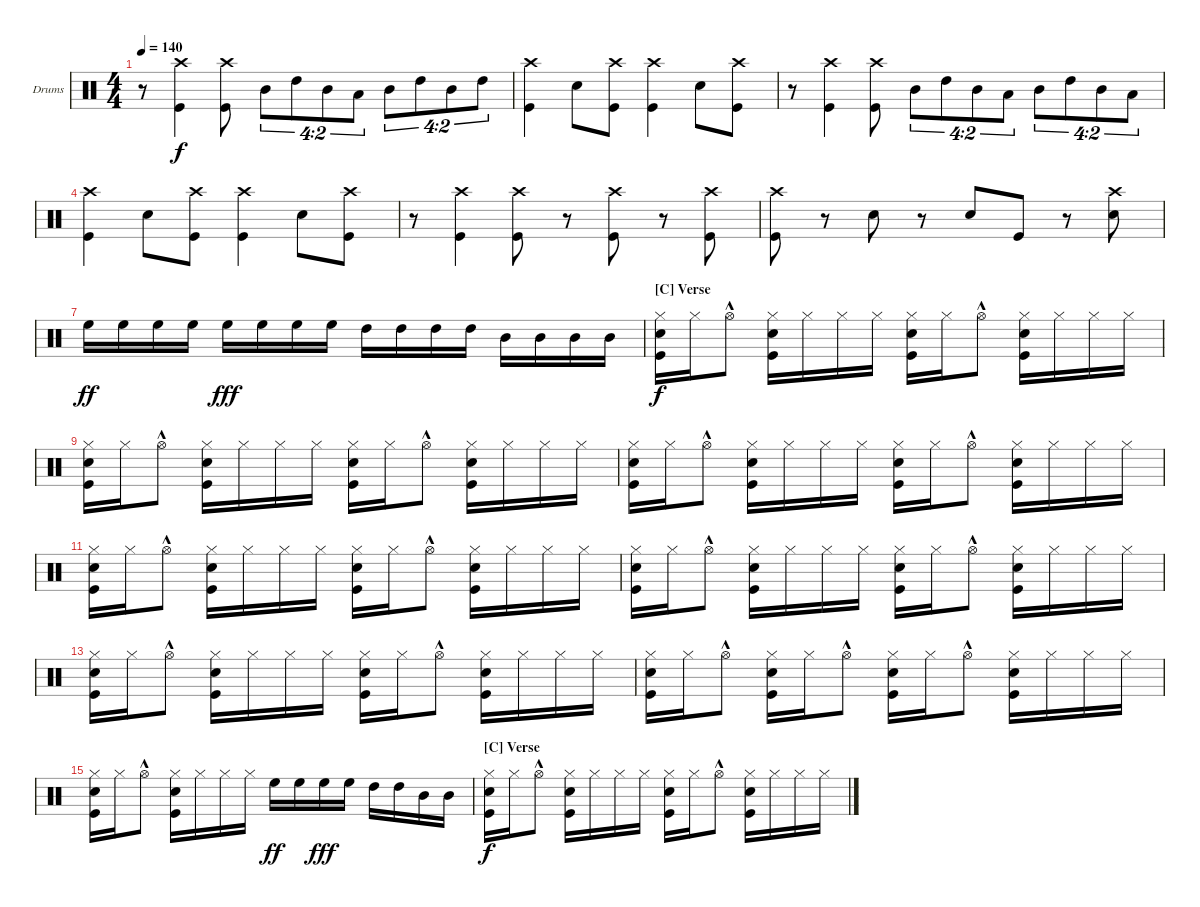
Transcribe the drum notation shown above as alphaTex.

\bracketExtendMode nobrackets
\firstSystemTrackNameOrientation horizontal
\otherSystemsTrackNameOrientation horizontal
\defaultBarNumberDisplay FirstOfSystem
\track ("Drumkit" "Drums") {instrument percussion}
\staff {score}
\articulation defaults
\ts (4 4)
\tempo 140
\clef neutral
\ks c
r.8{dy f} ("Crash high (hit)" "Kick (hit)").4 ("Crash high (hit)" "Kick (hit)").8 "Mid Tom (hit)".8{tu (4 2)} "High Tom (hit)".8{tu (4 2)} "Mid Tom (hit)".8{tu (4 2)} "Low Tom (hit)".8{tu (4 2)} "Mid Tom (hit)".8{tu (4 2)} "High Tom (hit)".8{tu (4 2)} "Mid Tom (hit)".8{tu (4 2)} "High Tom (hit)".8{tu (4 2)} |
("Kick (hit)" "Crash high (hit)").4 "Snare (hit) 2".8 ("Crash high (hit)" "Kick (hit)").8 ("Crash high (hit)" "Kick (hit)").4 "Snare (hit) 2".8 ("Crash high (hit)" "Kick (hit)").8 |
r.8 ("Crash high (hit)" "Kick (hit)").4 ("Crash high (hit)" "Kick (hit)").8 "Mid Tom (hit)".8{tu (4 2)} "High Tom (hit)".8{tu (4 2)} "Mid Tom (hit)".8{tu (4 2)} "Low Tom (hit)".8{tu (4 2)} "Mid Tom (hit)".8{tu (4 2)} "High Tom (hit)".8{tu (4 2)} "Mid Tom (hit)".8{tu (4 2)} "Low Tom (hit)".8{tu (4 2)} |
("Kick (hit)" "Crash high (hit)").4 "Snare (hit) 2".8 ("Crash high (hit)" "Kick (hit)").8 ("Crash high (hit)" "Kick (hit)").4 "Snare (hit) 2".8 ("Crash high (hit)" "Kick (hit)").8 |
r.8 ("Crash high (hit)" "Kick (hit)").4 ("Crash high (hit)" "Kick (hit)").8 r.8 ("Kick (hit)" "Crash high (hit)").8 r.8 ("Kick (hit)" "Crash high (hit)").8 |
("Kick (hit)" "Crash high (hit)").8 r.8 "Snare (hit) 2".8 r.8 "Snare (hit) 2".8 "Kick (hit)".8 r.8 ("Crash high (hit)" "Snare (hit) 2").8 |
"High Floor Tom (hit)".16{dy ff} "High Floor Tom (hit)".16 "High Floor Tom (hit)".16 "High Floor Tom (hit)".16 "High Floor Tom (hit)".16{dy fff} "High Floor Tom (hit)".16 "High Floor Tom (hit)".16 "High Floor Tom (hit)".16 "High Tom (hit)".16 "High Tom (hit)".16 "High Tom (hit)".16 "High Tom (hit)".16 "Mid Tom (hit)".16 "Mid Tom (hit)".16 "Mid Tom (hit)".16 "Mid Tom (hit)".16 |
\section ("C" "Verse")
("Hi-Hat (closed)" "Kick (hit)" "Snare (hit) 2").16{dy f} "Hi-Hat (closed)".16 "Hi-Hat (open)"{hac}.8 ("Hi-Hat (closed)" "Kick (hit)" "Snare (hit) 2").16 "Hi-Hat (closed)".16 "Hi-Hat (closed)".16 "Hi-Hat (closed)".16 ("Hi-Hat (closed)" "Kick (hit)" "Snare (hit) 2").16 "Hi-Hat (closed)".16 "Hi-Hat (open)"{hac}.8 ("Hi-Hat (closed)" "Kick (hit)" "Snare (hit) 2").16 "Hi-Hat (closed)".16 "Hi-Hat (closed)".16 "Hi-Hat (closed)".16 |
("Hi-Hat (closed)" "Kick (hit)" "Snare (hit) 2").16 "Hi-Hat (closed)".16 "Hi-Hat (open)"{hac}.8 ("Hi-Hat (closed)" "Kick (hit)" "Snare (hit) 2").16 "Hi-Hat (closed)".16 "Hi-Hat (closed)".16 "Hi-Hat (closed)".16 ("Hi-Hat (closed)" "Kick (hit)" "Snare (hit) 2").16 "Hi-Hat (closed)".16 "Hi-Hat (open)"{hac}.8 ("Hi-Hat (closed)" "Kick (hit)" "Snare (hit) 2").16 "Hi-Hat (closed)".16 "Hi-Hat (closed)".16 "Hi-Hat (closed)".16 |
("Hi-Hat (closed)" "Kick (hit)" "Snare (hit) 2").16 "Hi-Hat (closed)".16 "Hi-Hat (open)"{hac}.8 ("Hi-Hat (closed)" "Kick (hit)" "Snare (hit) 2").16 "Hi-Hat (closed)".16 "Hi-Hat (closed)".16 "Hi-Hat (closed)".16 ("Hi-Hat (closed)" "Kick (hit)" "Snare (hit) 2").16 "Hi-Hat (closed)".16 "Hi-Hat (open)"{hac}.8 ("Hi-Hat (closed)" "Kick (hit)" "Snare (hit) 2").16 "Hi-Hat (closed)".16 "Hi-Hat (closed)".16 "Hi-Hat (closed)".16 |
("Hi-Hat (closed)" "Kick (hit)" "Snare (hit) 2").16 "Hi-Hat (closed)".16 "Hi-Hat (open)"{hac}.8 ("Hi-Hat (closed)" "Kick (hit)" "Snare (hit) 2").16 "Hi-Hat (closed)".16 "Hi-Hat (closed)".16 "Hi-Hat (closed)".16 ("Hi-Hat (closed)" "Kick (hit)" "Snare (hit) 2").16 "Hi-Hat (closed)".16 "Hi-Hat (open)"{hac}.8 ("Hi-Hat (closed)" "Kick (hit)" "Snare (hit) 2").16 "Hi-Hat (closed)".16 "Hi-Hat (closed)".16 "Hi-Hat (closed)".16 |
("Hi-Hat (closed)" "Kick (hit)" "Snare (hit) 2").16 "Hi-Hat (closed)".16 "Hi-Hat (open)"{hac}.8 ("Hi-Hat (closed)" "Kick (hit)" "Snare (hit) 2").16 "Hi-Hat (closed)".16 "Hi-Hat (closed)".16 "Hi-Hat (closed)".16 ("Hi-Hat (closed)" "Kick (hit)" "Snare (hit) 2").16 "Hi-Hat (closed)".16 "Hi-Hat (open)"{hac}.8 ("Hi-Hat (closed)" "Kick (hit)" "Snare (hit) 2").16 "Hi-Hat (closed)".16 "Hi-Hat (closed)".16 "Hi-Hat (closed)".16 |
("Hi-Hat (closed)" "Kick (hit)" "Snare (hit) 2").16 "Hi-Hat (closed)".16 "Hi-Hat (open)"{hac}.8 ("Hi-Hat (closed)" "Kick (hit)" "Snare (hit) 2").16 "Hi-Hat (closed)".16 "Hi-Hat (closed)".16 "Hi-Hat (closed)".16 ("Hi-Hat (closed)" "Kick (hit)" "Snare (hit) 2").16 "Hi-Hat (closed)".16 "Hi-Hat (open)"{hac}.8 ("Hi-Hat (closed)" "Kick (hit)" "Snare (hit) 2").16 "Hi-Hat (closed)".16 "Hi-Hat (closed)".16 "Hi-Hat (closed)".16 |
("Hi-Hat (closed)" "Kick (hit)" "Snare (hit) 2").16 "Hi-Hat (closed)".16 "Hi-Hat (open)"{hac}.8 ("Hi-Hat (closed)" "Kick (hit)" "Snare (hit) 2").16 "Hi-Hat (closed)".16 "Hi-Hat (open)"{hac}.8 ("Hi-Hat (closed)" "Kick (hit)" "Snare (hit) 2").16 "Hi-Hat (closed)".16 "Hi-Hat (open)"{hac}.8 ("Hi-Hat (closed)" "Kick (hit)" "Snare (hit) 2").16 "Hi-Hat (closed)".16 "Hi-Hat (closed)".16 "Hi-Hat (closed)".16 |
("Hi-Hat (closed)" "Kick (hit)" "Snare (hit) 2").16 "Hi-Hat (closed)".16 "Hi-Hat (open)"{hac}.8 ("Hi-Hat (closed)" "Kick (hit)" "Snare (hit) 2").16 "Hi-Hat (closed)".16 "Hi-Hat (closed)".16 "Hi-Hat (closed)".16 "High Floor Tom (hit)".16{dy ff} "High Floor Tom (hit)".16 "High Floor Tom (hit)".16{dy fff} "High Floor Tom (hit)".16 "High Tom (hit)".16 "High Tom (hit)".16 "Mid Tom (hit)".16 "Mid Tom (hit)".16 |
\section ("C" "Verse")
("Hi-Hat (closed)" "Kick (hit)" "Snare (hit) 2").16{dy f} "Hi-Hat (closed)".16 "Hi-Hat (open)"{hac}.8 ("Hi-Hat (closed)" "Kick (hit)" "Snare (hit) 2").16 "Hi-Hat (closed)".16 "Hi-Hat (closed)".16 "Hi-Hat (closed)".16 ("Hi-Hat (closed)" "Kick (hit)" "Snare (hit) 2").16 "Hi-Hat (closed)".16 "Hi-Hat (open)"{hac}.8 ("Hi-Hat (closed)" "Kick (hit)" "Snare (hit) 2").16 "Hi-Hat (closed)".16 "Hi-Hat (closed)".16 "Hi-Hat (closed)".16
